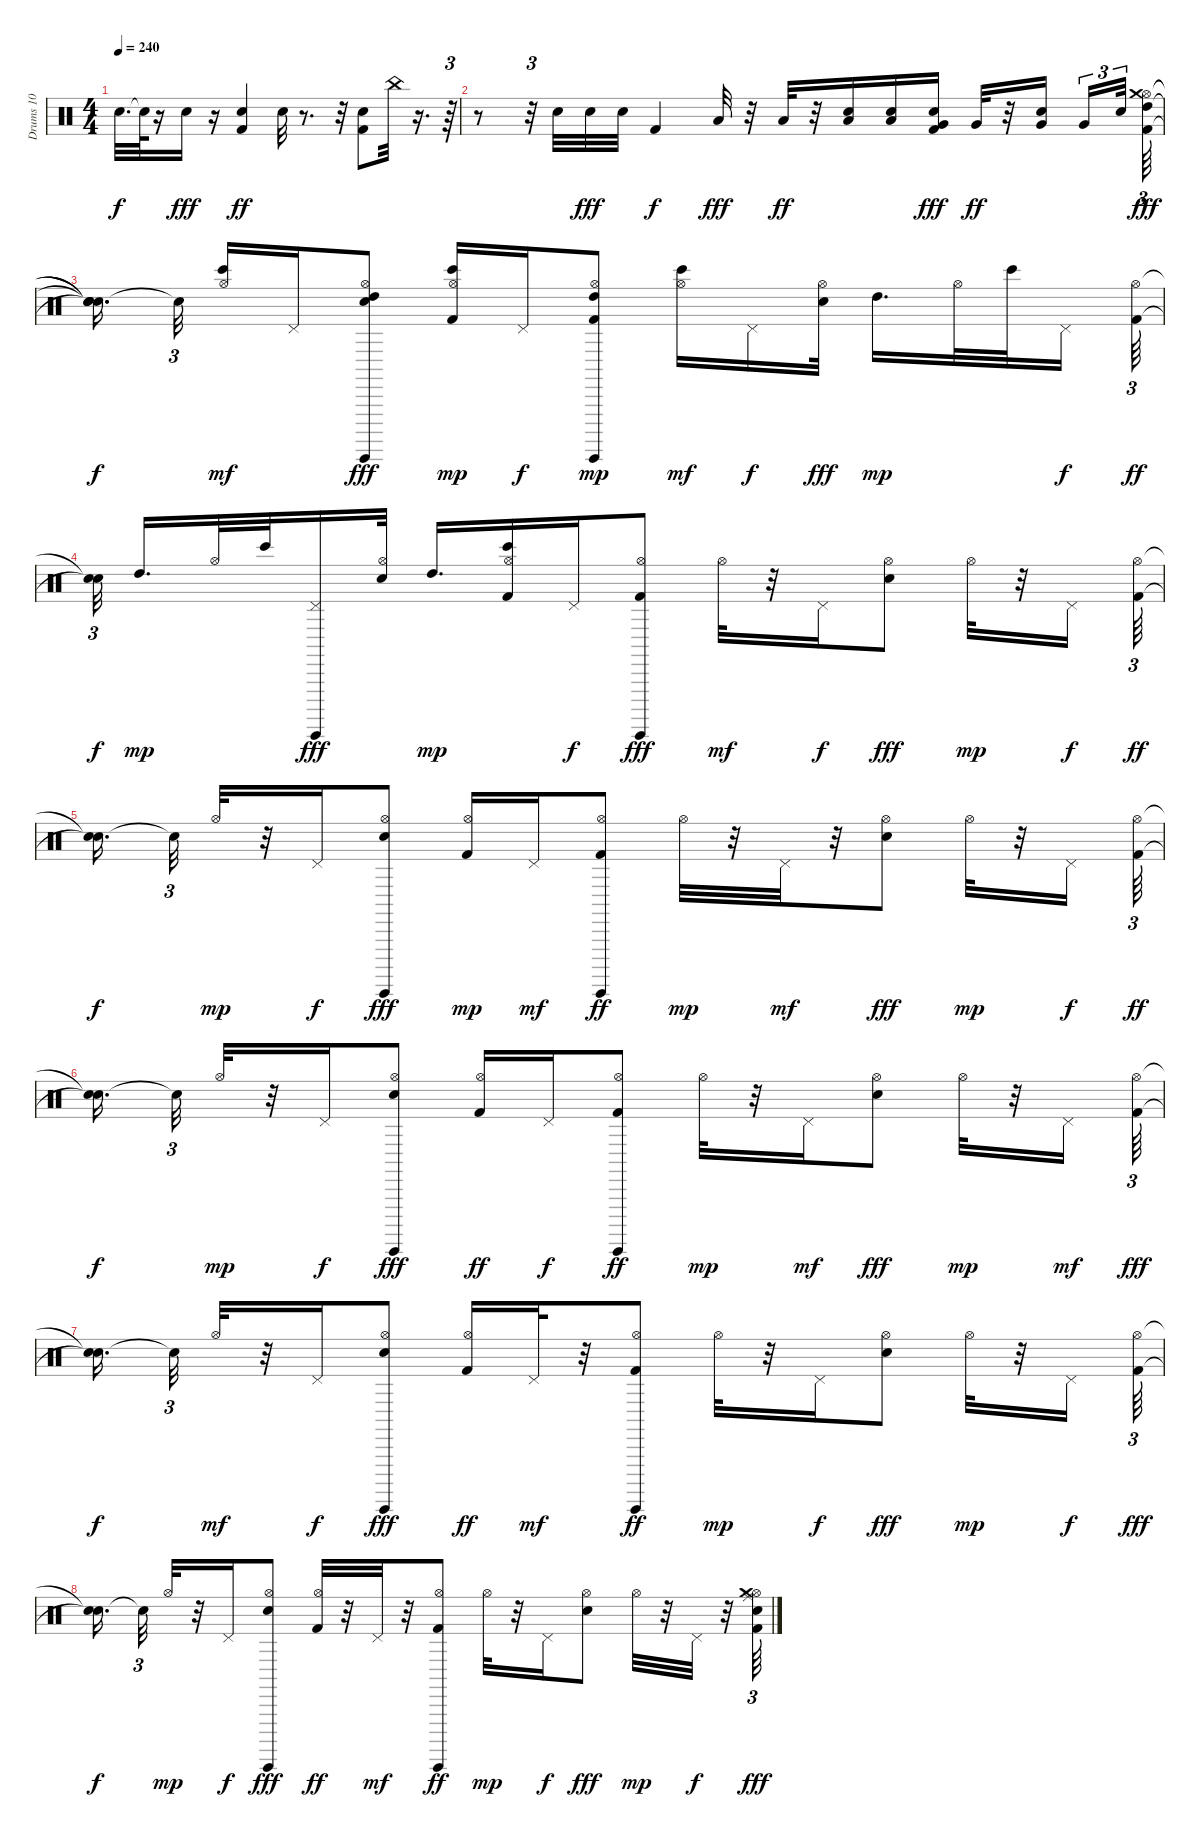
\track ("Drums 10" "Drums 10") {instrument percussion}
\staff {score}
\articulation defaults
\ts (4 4)
\tempo 240
\clef neutral
\ks c "Snare (hit)"{t}.32{d dy f} "Snare (hit)"{t}.64
r.16 "Electric Snare (hit)".16{dy fff} r.16 ("Snare (hit) 2" "Kick (hit) 2").4{dy ff} "Electric Snare (hit)".32 r.8{d} r.32 ("Electric Snare (hit)" "Kick (hit) 2").8 "China (hit)".32 r.16{d} r.64{tu (3 2)} |
r.8 r.32{tu (3 2)} "Snare (hit) 2".32 "Electric Snare (hit)".32{dy fff} "Snare (hit) 2".32 "Kick (hit) 2".4{dy f} "Low Tom (hit)".32{dy fff} r.32 "Low Tom (hit)".32{dy ff} r.32 ("Low Tom (hit)" "Snare (hit) 2").16 ("Electric Snare (hit)" "Low Tom (hit)").16 ("Snare (hit) 2" "Kick (hit) 2" "Very Low Tom (hit)").16{dy fff} "Very Low Tom (hit)".32{dy ff} r.32 ("Electric Snare (hit)" "Very Low Tom (hit)").16{beam splitsecondary} "Very Low Tom (hit)".16{tu (3 2)} "Snare (hit) 2".32{tu (3 2)} ("Hi-Hat (open)" "Kick (hit) 2" "High Tom (hit)" "Crash medium (hit)").64{tu (3 2) dy fff} |
("Snare (hit)"{t} "Snare (hit)"{t} "Snare (hit)"{t} "Snare (hit)"{t}).16{d dy f beam splitsecondary} "Snare (hit)"{t}.32{tu (3 2) beam splitsecondary} ("Bongo High (hit)" "Hi-Hat (open)").16{dy mf} "Pedal Hi-Hat (hit)".16 ("High Tom (hit)" "Hi-Hat (open)" "Guiro (hit)" "Snare (hit) 2").8{dy fff} ("Bongo High (hit)" "Hi-Hat (open)" "Kick (hit) 2").16{dy mp} "Pedal Hi-Hat (hit)".16{dy f} ("Hi-Hat (open)" "Guiro (hit)" "Kick (hit) 2" "High Tom (hit)").8{dy mp} ("Hi-Hat (open)" "Bongo High (hit)").16{dy mf} "Pedal Hi-Hat (hit)".16{dy f} ("Hi-Hat (open)" "Snare (hit) 2").32{dy fff} "High Tom (hit)".16{d dy mp} "Hi-Hat (open)".32 "Bongo High (hit)".32 "Pedal Hi-Hat (hit)".16{dy f beam splitsecondary} ("Hi-Hat (open)" "Kick (hit) 2").64{tu (3 2) dy ff} |
("Snare (hit)"{t} "Snare (hit)"{t}).32{tu (3 2) dy f beam splitsecondary} "High Tom (hit)".16{d dy mp} "Hi-Hat (open)".32 "Bongo High (hit)".32 ("Pedal Hi-Hat (hit)" "Guiro (hit)").16{dy fff} ("Hi-Hat (open)" "Snare (hit) 2").32 "High Tom (hit)".16{d dy mp} ("Hi-Hat (open)" "Kick (hit) 2" "Bongo High (hit)").16 "Pedal Hi-Hat (hit)".16{dy f} ("Hi-Hat (open)" "Guiro (hit)" "Kick (hit) 2").8{dy fff} "Hi-Hat (open)".32{dy mf} r.32 "Pedal Hi-Hat (hit)".16{dy f} ("Hi-Hat (open)" "Snare (hit) 2").8{dy fff} "Hi-Hat (open)".32{dy mp} r.32 "Pedal Hi-Hat (hit)".16{dy f} ("Hi-Hat (open)" "Kick (hit) 2").64{tu (3 2) dy ff} |
("Snare (hit)"{t} "Snare (hit)"{t}).16{d dy f beam splitsecondary} "Snare (hit)"{t}.32{tu (3 2)} "Hi-Hat (open)".32{dy mp} r.32 "Pedal Hi-Hat (hit)".16{dy f} ("Hi-Hat (open)" "Guiro (hit)" "Snare (hit) 2").8{dy fff} ("Hi-Hat (open)" "Kick (hit) 2").16{dy mp} "Pedal Hi-Hat (hit)".16{dy mf} ("Hi-Hat (open)" "Guiro (hit)" "Kick (hit) 2").8{dy ff} "Hi-Hat (open)".32{dy mp} r.32 "Pedal Hi-Hat (hit)".32{dy mf} r.32 ("Hi-Hat (open)" "Snare (hit) 2").8{dy fff} "Hi-Hat (open)".32{dy mp} r.32 "Pedal Hi-Hat (hit)".16{dy f} ("Hi-Hat (open)" "Kick (hit) 2").64{tu (3 2) dy ff} |
("Snare (hit)"{t} "Snare (hit)"{t}).16{d dy f beam splitsecondary} "Snare (hit)"{t}.32{tu (3 2)} "Hi-Hat (open)".32{dy mp} r.32 "Pedal Hi-Hat (hit)".16{dy f} ("Hi-Hat (open)" "Guiro (hit)" "Snare (hit) 2").8{dy fff} ("Hi-Hat (open)" "Kick (hit) 2").16{dy ff} "Pedal Hi-Hat (hit)".16{dy f} ("Hi-Hat (open)" "Guiro (hit)" "Kick (hit) 2").8{dy ff} "Hi-Hat (open)".32{dy mp} r.32 "Pedal Hi-Hat (hit)".16{dy mf} ("Hi-Hat (open)" "Snare (hit) 2").8{dy fff} "Hi-Hat (open)".32{dy mp} r.32 "Pedal Hi-Hat (hit)".16{dy mf} ("Hi-Hat (open)" "Kick (hit) 2").64{tu (3 2) dy fff} |
("Snare (hit)"{t} "Snare (hit)"{t}).16{d dy f beam splitsecondary} "Snare (hit)"{t}.32{tu (3 2)} "Hi-Hat (open)".32{dy mf} r.32 "Pedal Hi-Hat (hit)".16{dy f} ("Hi-Hat (open)" "Guiro (hit)" "Snare (hit) 2").8{dy fff} ("Hi-Hat (open)" "Kick (hit) 2").16{dy ff} "Pedal Hi-Hat (hit)".32{dy mf} r.32 ("Hi-Hat (open)" "Guiro (hit)" "Kick (hit) 2").8{dy ff} "Hi-Hat (open)".32{dy mp} r.32 "Pedal Hi-Hat (hit)".16{dy f} ("Hi-Hat (open)" "Snare (hit) 2").8{dy fff} "Hi-Hat (open)".32{dy mp} r.32 "Pedal Hi-Hat (hit)".16{dy f} ("Hi-Hat (open)" "Kick (hit) 2").64{tu (3 2) dy fff} |
("Snare (hit)"{t} "Snare (hit)"{t}).16{d dy f beam splitsecondary} "Snare (hit)"{t}.32{tu (3 2)} "Hi-Hat (open)".32{dy mp} r.32 "Pedal Hi-Hat (hit)".16{dy f} ("Hi-Hat (open)" "Guiro (hit)" "Snare (hit) 2").8{dy fff} ("Hi-Hat (open)" "Kick (hit) 2").32{dy ff} r.32 "Pedal Hi-Hat (hit)".32{dy mf} r.32 ("Hi-Hat (open)" "Guiro (hit)" "Kick (hit) 2").8{dy ff} "Hi-Hat (open)".32{dy mp} r.32 "Pedal Hi-Hat (hit)".16{dy f} ("Hi-Hat (open)" "Snare (hit) 2").8{dy fff} "Hi-Hat (open)".32{dy mp} r.32 "Pedal Hi-Hat (hit)".32{dy f} r.32 ("Hi-Hat (open)" "Kick (hit) 2" "Electric Snare (hit)" "Ride (middle)" "Crash medium (hit)").64{tu (3 2) dy fff}
